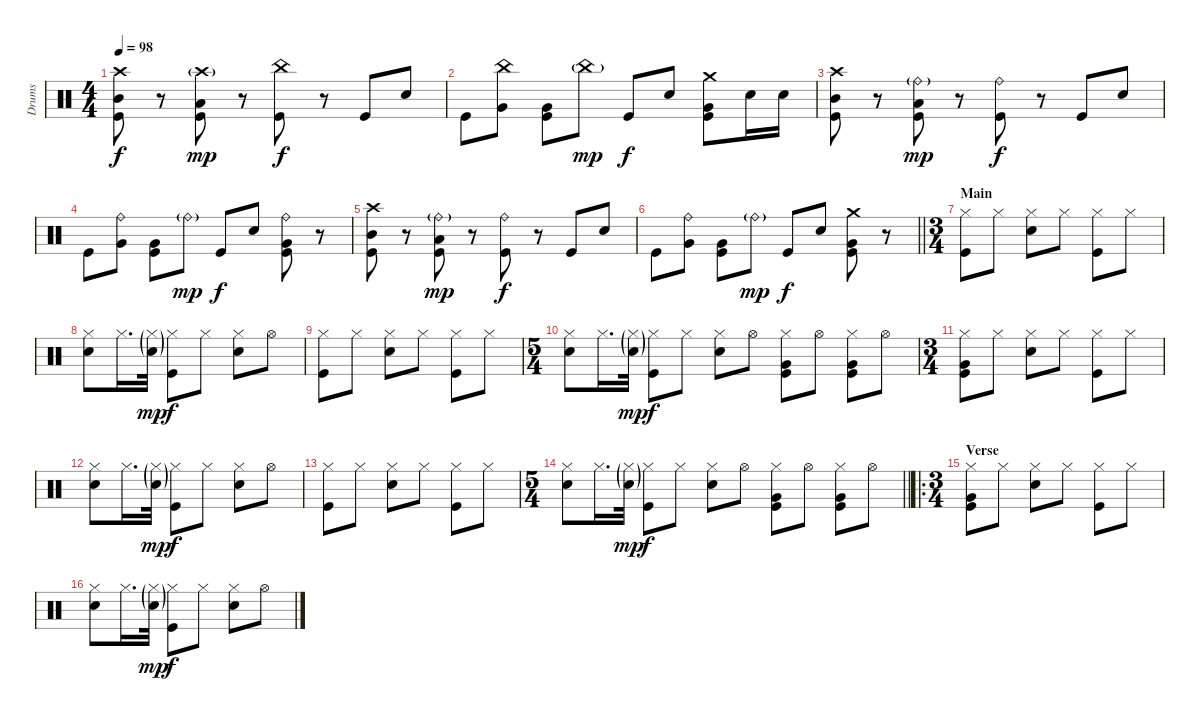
\track ("Drums" "Drums") {instrument percussion}
\staff {score}
\articulation defaults
\ts (4 4)
\tempo 98
\clef neutral
\ks c
("Crash high (hit)" "Mid Tom (hit)" "Kick (hit)").8{dy f} r.8 ("Crash high (hit)"{g} "Low Tom (hit)" "Kick (hit)").8{dy mp} r.8 ("China (hit)" "Kick (hit)").8{dy f} r.8 "Kick (hit)".8 "Electric Snare (hit)".8 |
"Kick (hit)".8 ("China (hit)" "Very Low Tom (hit)").8 ("Very Low Tom (hit)" "Kick (hit)").8 "China (hit)"{g}.8{dy mp} "Kick (hit)".8{dy f} "Electric Snare (hit)".8 ("Crash medium (hit)" "Very Low Tom (hit)" "Kick (hit)").8 "Electric Snare (hit)".16 "Electric Snare (hit)".16 |
("Crash high (hit)" "Mid Tom (hit)" "Kick (hit)").8 r.8 ("Ride (bell)"{g} "Low Tom (hit)" "Kick (hit)").8{dy mp} r.8 ("Ride (bell)" "Kick (hit)").8{dy f} r.8 "Kick (hit)".8 "Electric Snare (hit)".8 |
"Kick (hit)".8 ("Ride (bell)" "Very Low Tom (hit)").8 ("Very Low Tom (hit)" "Kick (hit)").8 "Ride (bell)"{g}.8{dy mp} "Kick (hit)".8{dy f} "Electric Snare (hit)".8 ("Ride (bell)" "Very Low Tom (hit)" "Kick (hit)").8 r.8 |
("Crash high (hit)" "Mid Tom (hit)" "Kick (hit)").8 r.8 ("Ride (bell)"{g} "Low Tom (hit)" "Kick (hit)").8{dy mp} r.8 ("Ride (bell)" "Kick (hit)").8{dy f} r.8 "Kick (hit)".8 "Electric Snare (hit)".8 |
\barLineRight lightlight "Kick (hit)".8
("Ride (bell)" "Very Low Tom (hit)").8 ("Very Low Tom (hit)" "Kick (hit)").8 "Ride (bell)"{g}.8{dy mp} "Kick (hit)".8{dy f} "Electric Snare (hit)".8 ("Crash medium (hit)" "Very Low Tom (hit)" "Kick (hit)").8 r.8 |
\ts (3 4)
\section ("" "Main")
("Hi-Hat (closed)" "Kick (hit)").8 "Hi-Hat (closed)".8 ("Hi-Hat (closed)" "Electric Snare (hit)").8 "Hi-Hat (closed)".8 ("Hi-Hat (closed)" "Kick (hit)").8 "Hi-Hat (closed)".8 |
("Hi-Hat (closed)" "Electric Snare (hit)").8 "Hi-Hat (closed)".16{d} ("Hi-Hat (closed)"{g} "Electric Snare (hit)"{g}).32{dy mp} ("Hi-Hat (closed)" "Kick (hit)").8{dy f} "Hi-Hat (closed)".8 ("Hi-Hat (closed)" "Electric Snare (hit)").8 "Hi-Hat (open)".8 |
("Hi-Hat (closed)" "Kick (hit)").8 "Hi-Hat (closed)".8 ("Hi-Hat (closed)" "Electric Snare (hit)").8 "Hi-Hat (closed)".8 ("Hi-Hat (closed)" "Kick (hit)").8 "Hi-Hat (closed)".8 |
\ts (5 4)
("Hi-Hat (closed)" "Electric Snare (hit)").8 "Hi-Hat (closed)".16{d} ("Hi-Hat (closed)"{g} "Electric Snare (hit)"{g}).32{dy mp} ("Hi-Hat (closed)" "Kick (hit)").8{dy f} "Hi-Hat (closed)".8 ("Hi-Hat (closed)" "Electric Snare (hit)").8 "Hi-Hat (open)".8 ("Hi-Hat (closed)" "Very Low Tom (hit)" "Kick (hit)").8 "Hi-Hat (open)".8 ("Hi-Hat (closed)" "Very Low Tom (hit)" "Kick (hit)").8 "Hi-Hat (open)".8 |
\ts (3 4)
("Hi-Hat (closed)" "Very Low Tom (hit)" "Kick (hit)").8 "Hi-Hat (closed)".8 ("Hi-Hat (closed)" "Electric Snare (hit)").8 "Hi-Hat (closed)".8 ("Hi-Hat (closed)" "Kick (hit)").8 "Hi-Hat (closed)".8 |
("Hi-Hat (closed)" "Electric Snare (hit)").8 "Hi-Hat (closed)".16{d} ("Hi-Hat (closed)"{g} "Electric Snare (hit)"{g}).32{dy mp} ("Hi-Hat (closed)" "Kick (hit)").8{dy f} "Hi-Hat (closed)".8 ("Hi-Hat (closed)" "Electric Snare (hit)").8 "Hi-Hat (open)".8 |
("Hi-Hat (closed)" "Kick (hit)").8 "Hi-Hat (closed)".8 ("Hi-Hat (closed)" "Electric Snare (hit)").8 "Hi-Hat (closed)".8 ("Hi-Hat (closed)" "Kick (hit)").8 "Hi-Hat (closed)".8 |
\ts (5 4)
\barLineRight lightlight
("Hi-Hat (closed)" "Electric Snare (hit)").8 "Hi-Hat (closed)".16{d} ("Hi-Hat (closed)"{g} "Electric Snare (hit)"{g}).32{dy mp} ("Hi-Hat (closed)" "Kick (hit)").8{dy f} "Hi-Hat (closed)".8 ("Hi-Hat (closed)" "Electric Snare (hit)").8 "Hi-Hat (open)".8 ("Hi-Hat (closed)" "Very Low Tom (hit)" "Kick (hit)").8 "Hi-Hat (open)".8 ("Hi-Hat (closed)" "Very Low Tom (hit)" "Kick (hit)").8 "Hi-Hat (open)".8 |
\ro
\ts (3 4)
\section ("" "Verse")
("Hi-Hat (closed)" "Very Low Tom (hit)" "Kick (hit)").8 "Hi-Hat (closed)".8 ("Hi-Hat (closed)" "Electric Snare (hit)").8 "Hi-Hat (closed)".8 ("Hi-Hat (closed)" "Kick (hit)").8 "Hi-Hat (closed)".8 |
("Hi-Hat (closed)" "Electric Snare (hit)").8 "Hi-Hat (closed)".16{d} ("Hi-Hat (closed)"{g} "Electric Snare (hit)"{g}).32{dy mp} ("Hi-Hat (closed)" "Kick (hit)").8{dy f} "Hi-Hat (closed)".8 ("Hi-Hat (closed)" "Electric Snare (hit)").8 "Hi-Hat (open)".8
